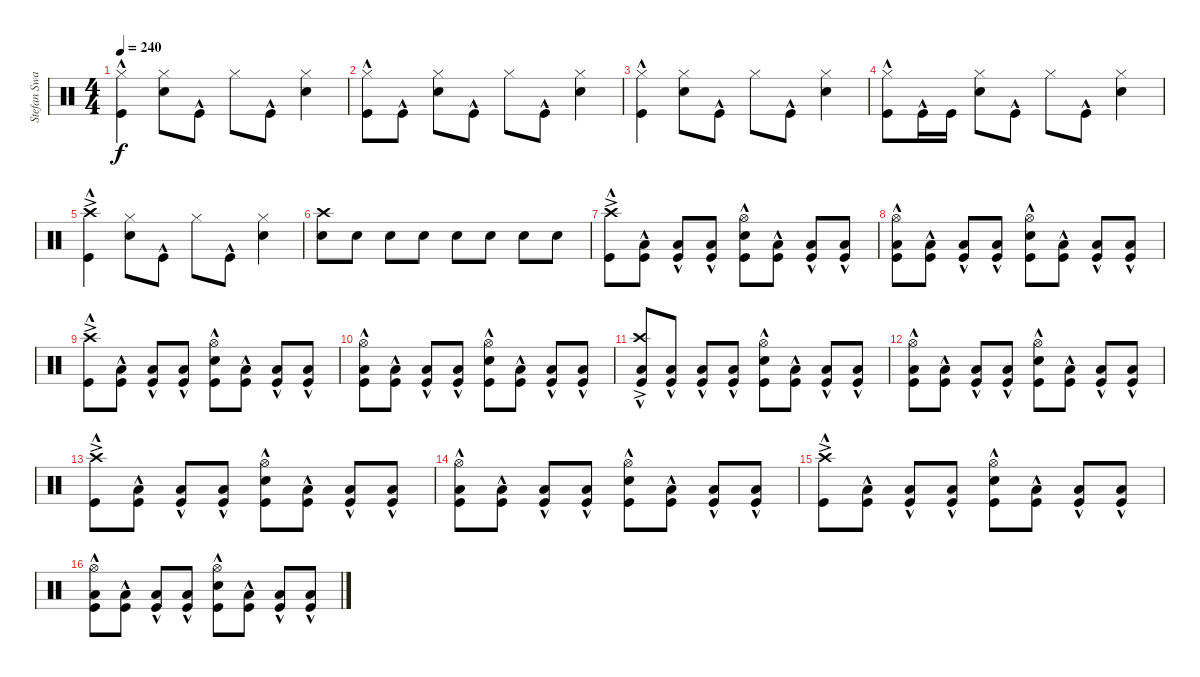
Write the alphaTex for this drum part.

\track ("Stefan Swarztmann" "Stefan Swa") {instrument percussion}
\staff {score}
\articulation defaults
\ts (4 4)
\tempo 240
\clef neutral
\ks c
("Hi-Hat (closed)" "Kick (hit)"{hac}).4{dy f} ("Hi-Hat (closed)" "Snare (hit) 2").8 "Kick (hit)"{hac}.8 "Hi-Hat (closed)".8 "Kick (hit)"{hac}.8 ("Hi-Hat (closed)" "Snare (hit) 2").4 |
("Hi-Hat (closed)" "Kick (hit)"{hac}).8 "Kick (hit)"{hac}.8 ("Hi-Hat (closed)" "Snare (hit) 2").8 "Kick (hit)"{hac}.8 "Hi-Hat (closed)".8 "Kick (hit)"{hac}.8 ("Hi-Hat (closed)" "Snare (hit) 2").4 |
("Hi-Hat (closed)" "Kick (hit)"{hac}).4 ("Hi-Hat (closed)" "Snare (hit) 2").8 "Kick (hit)"{hac}.8 "Hi-Hat (closed)".8 "Kick (hit)"{hac}.8 ("Hi-Hat (closed)" "Snare (hit) 2").4 |
("Hi-Hat (closed)" "Kick (hit)"{hac}).8 "Kick (hit)"{hac}.16 "Kick (hit)".16 ("Hi-Hat (closed)" "Snare (hit) 2").8 "Kick (hit)"{hac}.8 "Hi-Hat (closed)".8 "Kick (hit)"{hac}.8 ("Hi-Hat (closed)" "Snare (hit) 2").4 |
("Crash high (hit)"{ac} "Kick (hit)"{hac}).4 ("Hi-Hat (closed)" "Snare (hit) 2").8 "Kick (hit)"{hac}.8 "Hi-Hat (closed)".8 "Kick (hit)"{hac}.8 ("Hi-Hat (closed)" "Snare (hit) 2").4 |
("Crash high (hit)" "Snare (hit) 2").8 "Snare (hit) 2".8 "Snare (hit) 2".8 "Snare (hit) 2".8 "Snare (hit) 2".8 "Snare (hit) 2".8 "Snare (hit) 2".8 "Snare (hit) 2".8 |
("Crash high (hit)"{ac} "Kick (hit)"{hac}).8 ("Low Floor Tom (hit)" "Kick (hit)"{hac}).8 ("Low Floor Tom (hit)" "Kick (hit)"{hac}).8 ("Low Floor Tom (hit)" "Kick (hit)"{hac}).8 ("Hi-Hat (open)" "Snare (hit) 2" "Kick (hit)"{hac}).8 ("Low Floor Tom (hit)" "Kick (hit)"{hac}).8 ("Low Floor Tom (hit)" "Kick (hit)"{hac}).8 ("Low Floor Tom (hit)" "Kick (hit)"{hac}).8 |
("Hi-Hat (open)" "Low Floor Tom (hit)" "Kick (hit)"{hac}).8 ("Low Floor Tom (hit)" "Kick (hit)"{hac}).8 ("Low Floor Tom (hit)" "Kick (hit)"{hac}).8 ("Low Floor Tom (hit)" "Kick (hit)"{hac}).8 ("Hi-Hat (open)" "Snare (hit) 2" "Kick (hit)"{hac}).8 ("Low Floor Tom (hit)" "Kick (hit)"{hac}).8 ("Low Floor Tom (hit)" "Kick (hit)"{hac}).8 ("Low Floor Tom (hit)" "Kick (hit)"{hac}).8 |
("Crash high (hit)"{ac} "Kick (hit)"{hac}).8 ("Low Floor Tom (hit)" "Kick (hit)"{hac}).8 ("Low Floor Tom (hit)" "Kick (hit)"{hac}).8 ("Low Floor Tom (hit)" "Kick (hit)"{hac}).8 ("Hi-Hat (open)" "Snare (hit) 2" "Kick (hit)"{hac}).8 ("Low Floor Tom (hit)" "Kick (hit)"{hac}).8 ("Low Floor Tom (hit)" "Kick (hit)"{hac}).8 ("Low Floor Tom (hit)" "Kick (hit)"{hac}).8 |
("Hi-Hat (open)" "Low Floor Tom (hit)" "Kick (hit)"{hac}).8 ("Low Floor Tom (hit)" "Kick (hit)"{hac}).8 ("Low Floor Tom (hit)" "Kick (hit)"{hac}).8 ("Low Floor Tom (hit)" "Kick (hit)"{hac}).8 ("Hi-Hat (open)" "Snare (hit) 2" "Kick (hit)"{hac}).8 ("Low Floor Tom (hit)" "Kick (hit)"{hac}).8 ("Low Floor Tom (hit)" "Kick (hit)"{hac}).8 ("Low Floor Tom (hit)" "Kick (hit)"{hac}).8 |
("Crash high (hit)"{ac} "Low Floor Tom (hit)" "Kick (hit)"{hac}).8 ("Low Floor Tom (hit)" "Kick (hit)"{hac}).8 ("Low Floor Tom (hit)" "Kick (hit)"{hac}).8 ("Low Floor Tom (hit)" "Kick (hit)"{hac}).8 ("Hi-Hat (open)" "Snare (hit) 2" "Kick (hit)"{hac}).8 ("Low Floor Tom (hit)" "Kick (hit)"{hac}).8 ("Low Floor Tom (hit)" "Kick (hit)"{hac}).8 ("Low Floor Tom (hit)" "Kick (hit)"{hac}).8 |
("Hi-Hat (open)" "Low Floor Tom (hit)" "Kick (hit)"{hac}).8 ("Low Floor Tom (hit)" "Kick (hit)"{hac}).8 ("Low Floor Tom (hit)" "Kick (hit)"{hac}).8 ("Low Floor Tom (hit)" "Kick (hit)"{hac}).8 ("Hi-Hat (open)" "Snare (hit) 2" "Kick (hit)"{hac}).8 ("Low Floor Tom (hit)" "Kick (hit)"{hac}).8 ("Low Floor Tom (hit)" "Kick (hit)"{hac}).8 ("Low Floor Tom (hit)" "Kick (hit)"{hac}).8 |
("Crash high (hit)"{ac} "Kick (hit)"{hac}).8 ("Low Floor Tom (hit)" "Kick (hit)"{hac}).8 ("Low Floor Tom (hit)" "Kick (hit)"{hac}).8 ("Low Floor Tom (hit)" "Kick (hit)"{hac}).8 ("Hi-Hat (open)" "Snare (hit) 2" "Kick (hit)"{hac}).8 ("Low Floor Tom (hit)" "Kick (hit)"{hac}).8 ("Low Floor Tom (hit)" "Kick (hit)"{hac}).8 ("Low Floor Tom (hit)" "Kick (hit)"{hac}).8 |
("Hi-Hat (open)" "Low Floor Tom (hit)" "Kick (hit)"{hac}).8 ("Low Floor Tom (hit)" "Kick (hit)"{hac}).8 ("Low Floor Tom (hit)" "Kick (hit)"{hac}).8 ("Low Floor Tom (hit)" "Kick (hit)"{hac}).8 ("Hi-Hat (open)" "Snare (hit) 2" "Kick (hit)"{hac}).8 ("Low Floor Tom (hit)" "Kick (hit)"{hac}).8 ("Low Floor Tom (hit)" "Kick (hit)"{hac}).8 ("Low Floor Tom (hit)" "Kick (hit)"{hac}).8 |
("Crash high (hit)"{ac} "Kick (hit)"{hac}).8 ("Low Floor Tom (hit)" "Kick (hit)"{hac}).8 ("Low Floor Tom (hit)" "Kick (hit)"{hac}).8 ("Low Floor Tom (hit)" "Kick (hit)"{hac}).8 ("Hi-Hat (open)" "Snare (hit) 2" "Kick (hit)"{hac}).8 ("Low Floor Tom (hit)" "Kick (hit)"{hac}).8 ("Low Floor Tom (hit)" "Kick (hit)"{hac}).8 ("Low Floor Tom (hit)" "Kick (hit)"{hac}).8 |
("Hi-Hat (open)" "Low Floor Tom (hit)" "Kick (hit)"{hac}).8 ("Low Floor Tom (hit)" "Kick (hit)"{hac}).8 ("Low Floor Tom (hit)" "Kick (hit)"{hac}).8 ("Low Floor Tom (hit)" "Kick (hit)"{hac}).8 ("Hi-Hat (open)" "Snare (hit) 2" "Kick (hit)"{hac}).8 ("Low Floor Tom (hit)" "Kick (hit)"{hac}).8 ("Low Floor Tom (hit)" "Kick (hit)"{hac}).8 ("Low Floor Tom (hit)" "Kick (hit)"{hac}).8
